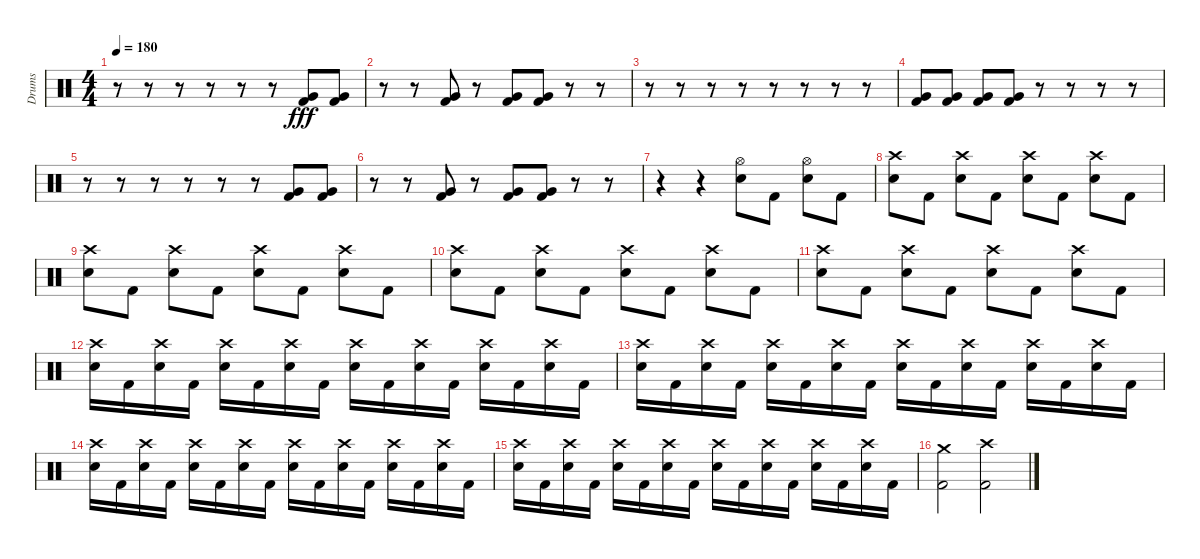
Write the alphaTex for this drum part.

\track ("Drums " "Drums ") {instrument percussion}
\staff {score}
\articulation defaults
\ts (4 4)
\tempo 180
\clef neutral
\ks c
r.8{dy fff} r.8 r.8 r.8 r.8 r.8 ("Very Low Tom (hit)" "Kick (hit) 2").8 ("Very Low Tom (hit)" "Kick (hit) 2").8 |
r.8 r.8 ("Very Low Tom (hit)" "Kick (hit) 2").8 r.8 ("Very Low Tom (hit)" "Kick (hit) 2").8 ("Very Low Tom (hit)" "Kick (hit) 2").8 r.8 r.8 |
r.8 r.8 r.8 r.8 r.8 r.8 r.8 r.8 |
("Very Low Tom (hit)" "Kick (hit) 2").8 ("Very Low Tom (hit)" "Kick (hit) 2").8 ("Very Low Tom (hit)" "Kick (hit) 2").8 ("Very Low Tom (hit)" "Kick (hit) 2").8 r.8 r.8 r.8 r.8 |
r.8 r.8 r.8 r.8 r.8 r.8 ("Very Low Tom (hit)" "Kick (hit) 2").8 ("Very Low Tom (hit)" "Kick (hit) 2").8 |
r.8 r.8 ("Very Low Tom (hit)" "Kick (hit) 2").8 r.8 ("Very Low Tom (hit)" "Kick (hit) 2").8 ("Very Low Tom (hit)" "Kick (hit) 2").8 r.8 r.8 |
r.4 r.4 ("Hi-Hat (open)" "Snare (hit) 2").8 "Kick (hit) 2".8 ("Hi-Hat (open)" "Snare (hit) 2").8 "Kick (hit) 2".8 |
("Crash high (hit)" "Snare (hit) 2").8 "Kick (hit) 2".8 ("Crash high (hit)" "Snare (hit) 2").8 "Kick (hit) 2".8 ("Crash high (hit)" "Snare (hit) 2").8 "Kick (hit) 2".8 ("Crash high (hit)" "Snare (hit) 2").8 "Kick (hit) 2".8 |
("Crash high (hit)" "Snare (hit) 2").8 "Kick (hit) 2".8 ("Crash high (hit)" "Snare (hit) 2").8 "Kick (hit) 2".8 ("Crash high (hit)" "Snare (hit) 2").8 "Kick (hit) 2".8 ("Crash high (hit)" "Snare (hit) 2").8 "Kick (hit) 2".8 |
("Crash high (hit)" "Snare (hit) 2").8 "Kick (hit) 2".8 ("Crash high (hit)" "Snare (hit) 2").8 "Kick (hit) 2".8 ("Crash high (hit)" "Snare (hit) 2").8 "Kick (hit) 2".8 ("Crash high (hit)" "Snare (hit) 2").8 "Kick (hit) 2".8 |
("Crash high (hit)" "Snare (hit) 2").8 "Kick (hit) 2".8 ("Crash high (hit)" "Snare (hit) 2").8 "Kick (hit) 2".8 ("Crash high (hit)" "Snare (hit) 2").8 "Kick (hit) 2".8 ("Crash high (hit)" "Snare (hit) 2").8 "Kick (hit) 2".8 |
("Crash high (hit)" "Snare (hit) 2").16 "Kick (hit) 2".16 ("Crash high (hit)" "Snare (hit) 2").16 "Kick (hit) 2".16 ("Crash high (hit)" "Snare (hit) 2").16 "Kick (hit) 2".16 ("Crash high (hit)" "Snare (hit) 2").16 "Kick (hit) 2".16 ("Crash high (hit)" "Snare (hit) 2").16 "Kick (hit) 2".16 ("Crash high (hit)" "Snare (hit) 2").16 "Kick (hit) 2".16 ("Crash high (hit)" "Snare (hit) 2").16 "Kick (hit) 2".16 ("Crash high (hit)" "Snare (hit) 2").16 "Kick (hit) 2".16 |
("Crash high (hit)" "Snare (hit) 2").16 "Kick (hit) 2".16 ("Crash high (hit)" "Snare (hit) 2").16 "Kick (hit) 2".16 ("Crash high (hit)" "Snare (hit) 2").16 "Kick (hit) 2".16 ("Crash high (hit)" "Snare (hit) 2").16 "Kick (hit) 2".16 ("Crash high (hit)" "Snare (hit) 2").16 "Kick (hit) 2".16 ("Crash high (hit)" "Snare (hit) 2").16 "Kick (hit) 2".16 ("Crash high (hit)" "Snare (hit) 2").16 "Kick (hit) 2".16 ("Crash high (hit)" "Snare (hit) 2").16 "Kick (hit) 2".16 |
("Crash high (hit)" "Snare (hit) 2").16 "Kick (hit) 2".16 ("Crash high (hit)" "Snare (hit) 2").16 "Kick (hit) 2".16 ("Crash high (hit)" "Snare (hit) 2").16 "Kick (hit) 2".16 ("Crash high (hit)" "Snare (hit) 2").16 "Kick (hit) 2".16 ("Crash high (hit)" "Snare (hit) 2").16 "Kick (hit) 2".16 ("Crash high (hit)" "Snare (hit) 2").16 "Kick (hit) 2".16 ("Crash high (hit)" "Snare (hit) 2").16 "Kick (hit) 2".16 ("Crash high (hit)" "Snare (hit) 2").16 "Kick (hit) 2".16 |
("Crash high (hit)" "Snare (hit) 2").16 "Kick (hit) 2".16 ("Crash high (hit)" "Snare (hit) 2").16 "Kick (hit) 2".16 ("Crash high (hit)" "Snare (hit) 2").16 "Kick (hit) 2".16 ("Crash high (hit)" "Snare (hit) 2").16 "Kick (hit) 2".16 ("Crash high (hit)" "Snare (hit) 2").16 "Kick (hit) 2".16 ("Crash high (hit)" "Snare (hit) 2").16 "Kick (hit) 2".16 ("Crash high (hit)" "Snare (hit) 2").16 "Kick (hit) 2".16 ("Crash high (hit)" "Snare (hit) 2").16 "Kick (hit) 2".16 |
("Crash medium (hit)" "Kick (hit) 2").2 ("Crash high (hit)" "Kick (hit) 2").2
